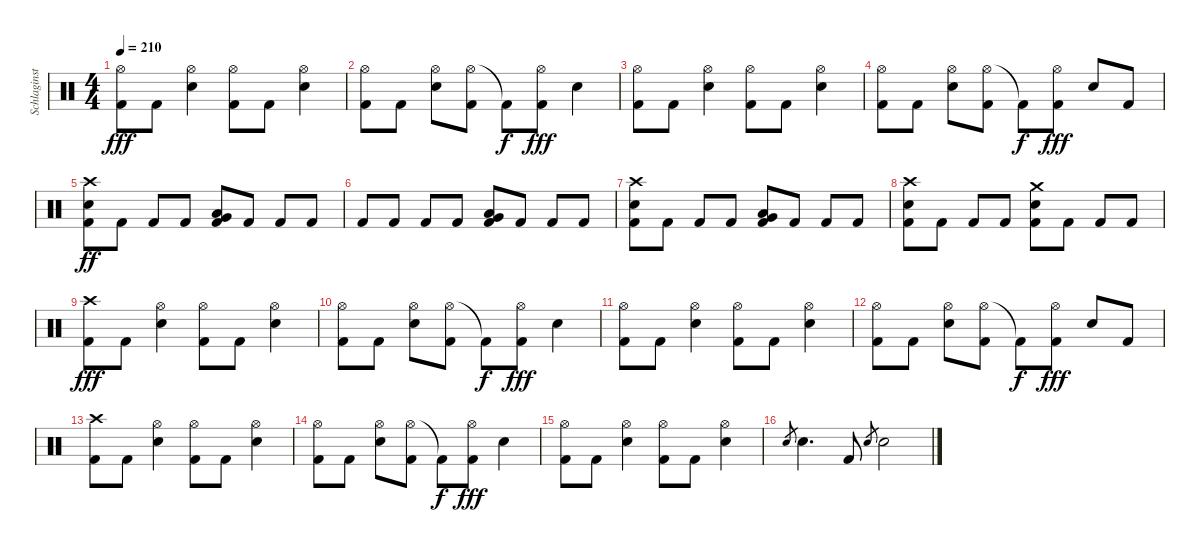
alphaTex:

\track ("Schlaginstrumente - Auswahl" "Schlaginst") {instrument percussion}
\staff {score}
\articulation defaults
\ts (4 4)
\tempo 210
\clef neutral
\ks c
("Hi-Hat (open)" "Kick (hit) 2").8{dy fff} "Kick (hit) 2".8 ("Hi-Hat (open)" "Electric Snare (hit)").4 ("Hi-Hat (open)" "Kick (hit) 2").8 "Kick (hit) 2".8 ("Hi-Hat (open)" "Electric Snare (hit)").4 |
("Hi-Hat (open)" "Kick (hit) 2").8 "Kick (hit) 2".8 ("Hi-Hat (open)" "Electric Snare (hit)").8 ("Hi-Hat (open)" "Kick (hit) 2").8 "Kick (hit) 2"{t}.8{dy f} ("Hi-Hat (open)" "Kick (hit) 2").8{dy fff} "Electric Snare (hit)".4 |
("Hi-Hat (open)" "Kick (hit) 2").8 "Kick (hit) 2".8 ("Hi-Hat (open)" "Electric Snare (hit)").4 ("Hi-Hat (open)" "Kick (hit) 2").8 "Kick (hit) 2".8 ("Hi-Hat (open)" "Electric Snare (hit)").4 |
("Hi-Hat (open)" "Kick (hit) 2").8 "Kick (hit) 2".8 ("Hi-Hat (open)" "Electric Snare (hit)").8 ("Hi-Hat (open)" "Kick (hit) 2").8 "Kick (hit) 2"{t}.8{dy f} ("Hi-Hat (open)" "Kick (hit) 2").8{dy fff} "Electric Snare (hit)".8 "Kick (hit) 2".8 |
("Crash high (hit)" "Electric Snare (hit)" "Kick (hit) 2").8{dy ff} "Kick (hit) 2".8 "Kick (hit) 2".8 "Kick (hit) 2".8 ("Very Low Tom (hit)" "Low Tom (hit)" "Kick (hit) 2").8 "Kick (hit) 2".8 "Kick (hit) 2".8 "Kick (hit) 2".8 |
"Kick (hit) 2".8 "Kick (hit) 2".8 "Kick (hit) 2".8 "Kick (hit) 2".8 ("Very Low Tom (hit)" "Low Tom (hit)" "Kick (hit) 2").8 "Kick (hit) 2".8 "Kick (hit) 2".8 "Kick (hit) 2".8 |
("Crash high (hit)" "Electric Snare (hit)" "Kick (hit) 2").8 "Kick (hit) 2".8 "Kick (hit) 2".8 "Kick (hit) 2".8 ("Very Low Tom (hit)" "Low Tom (hit)" "Kick (hit) 2").8 "Kick (hit) 2".8 "Kick (hit) 2".8 "Kick (hit) 2".8 |
("Crash high (hit)" "Electric Snare (hit)" "Kick (hit) 2").8 "Kick (hit) 2".8 "Kick (hit) 2".8 "Kick (hit) 2".8 ("Crash medium (hit)" "Electric Snare (hit)" "Kick (hit) 2").8 "Kick (hit) 2".8 "Kick (hit) 2".8 "Kick (hit) 2".8 |
("Crash high (hit)" "Kick (hit) 2").8{dy fff} "Kick (hit) 2".8 ("Hi-Hat (open)" "Electric Snare (hit)").4 ("Hi-Hat (open)" "Kick (hit) 2").8 "Kick (hit) 2".8 ("Hi-Hat (open)" "Electric Snare (hit)").4 |
("Hi-Hat (open)" "Kick (hit) 2").8 "Kick (hit) 2".8 ("Hi-Hat (open)" "Electric Snare (hit)").8 ("Hi-Hat (open)" "Kick (hit) 2").8 "Kick (hit) 2"{t}.8{dy f} ("Hi-Hat (open)" "Kick (hit) 2").8{dy fff} "Electric Snare (hit)".4 |
("Hi-Hat (open)" "Kick (hit) 2").8 "Kick (hit) 2".8 ("Hi-Hat (open)" "Electric Snare (hit)").4 ("Hi-Hat (open)" "Kick (hit) 2").8 "Kick (hit) 2".8 ("Hi-Hat (open)" "Electric Snare (hit)").4 |
("Hi-Hat (open)" "Kick (hit) 2").8 "Kick (hit) 2".8 ("Hi-Hat (open)" "Electric Snare (hit)").8 ("Hi-Hat (open)" "Kick (hit) 2").8 "Kick (hit) 2"{t}.8{dy f} ("Hi-Hat (open)" "Kick (hit) 2").8{dy fff} "Electric Snare (hit)".8 "Kick (hit) 2".8 |
("Crash high (hit)" "Kick (hit) 2").8 "Kick (hit) 2".8 ("Hi-Hat (open)" "Electric Snare (hit)").4 ("Hi-Hat (open)" "Kick (hit) 2").8 "Kick (hit) 2".8 ("Hi-Hat (open)" "Electric Snare (hit)").4 |
("Hi-Hat (open)" "Kick (hit) 2").8 "Kick (hit) 2".8 ("Hi-Hat (open)" "Electric Snare (hit)").8 ("Hi-Hat (open)" "Kick (hit) 2").8 "Kick (hit) 2"{t}.8{dy f} ("Hi-Hat (open)" "Kick (hit) 2").8{dy fff} "Electric Snare (hit)".4 |
("Hi-Hat (open)" "Kick (hit) 2").8 "Kick (hit) 2".8 ("Hi-Hat (open)" "Electric Snare (hit)").4 ("Hi-Hat (open)" "Kick (hit) 2").8 "Kick (hit) 2".8 ("Hi-Hat (open)" "Electric Snare (hit)").4 |
"Electric Snare (hit)".8{gr} "Electric Snare (hit)".4{d} "Kick (hit) 2".8 "Electric Snare (hit)".8{gr} "Electric Snare (hit)".2
